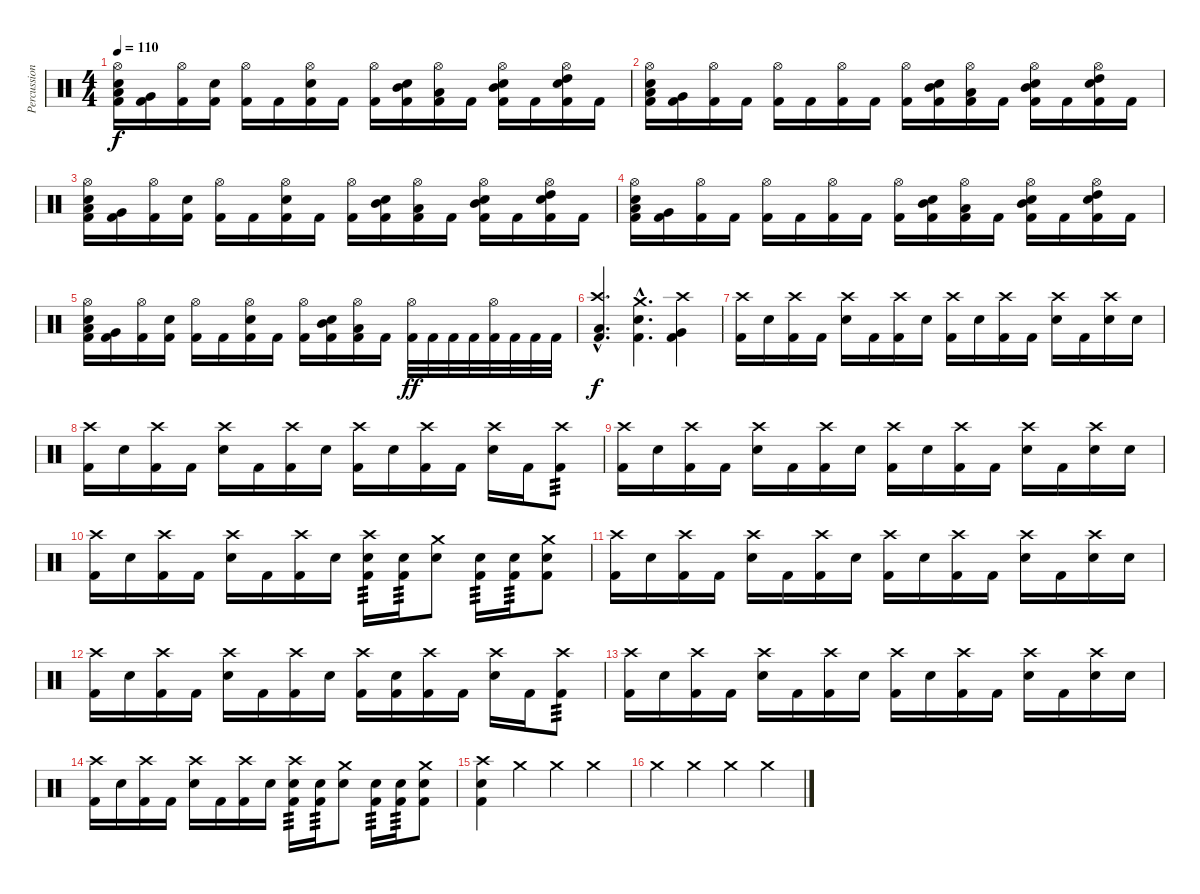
\track ("Percussion" "Percussion") {instrument percussion}
\staff {score}
\articulation defaults
\ts (4 4)
\tempo 110
\clef neutral
\ks c
("Hi-Hat (open)" "Electric Snare (hit)" "Low Tom (hit)" "Kick (hit) 2").16{dy f} ("Very Low Tom (hit)" "Kick (hit) 2").16 ("Hi-Hat (open)" "Kick (hit) 2").16 ("Electric Snare (hit)" "Kick (hit) 2").16 ("Hi-Hat (open)" "Kick (hit) 2").16 "Kick (hit) 2".16 ("Hi-Hat (open)" "Electric Snare (hit)" "Kick (hit) 2").16 "Kick (hit) 2".16 ("Hi-Hat (open)" "Kick (hit) 2").16 ("Electric Snare (hit)" "Mid Tom (hit)" "Kick (hit) 2").16 ("Hi-Hat (open)" "Low Tom (hit)" "Kick (hit) 2").16 "Kick (hit) 2".16 ("Hi-Hat (open)" "Electric Snare (hit)" "Mid Tom (hit)" "Kick (hit) 2").16 "Kick (hit) 2".16 ("Hi-Hat (open)" "Electric Snare (hit)" "High Tom (hit)" "Kick (hit) 2").16 "Kick (hit) 2".16 |
("Hi-Hat (open)" "Electric Snare (hit)" "Low Tom (hit)" "Kick (hit) 2").16 ("Very Low Tom (hit)" "Kick (hit) 2").16 ("Hi-Hat (open)" "Kick (hit) 2").16 "Kick (hit) 2".16 ("Hi-Hat (open)" "Kick (hit) 2").16 "Kick (hit) 2".16 ("Hi-Hat (open)" "Kick (hit) 2").16 "Kick (hit) 2".16 ("Hi-Hat (open)" "Kick (hit) 2").16 ("Electric Snare (hit)" "Mid Tom (hit)" "Kick (hit) 2").16 ("Hi-Hat (open)" "Low Tom (hit)" "Kick (hit) 2").16 "Kick (hit) 2".16 ("Hi-Hat (open)" "Electric Snare (hit)" "Mid Tom (hit)" "Kick (hit) 2").16 "Kick (hit) 2".16 ("Hi-Hat (open)" "Electric Snare (hit)" "High Tom (hit)" "Kick (hit) 2").16 "Kick (hit) 2".16 |
("Hi-Hat (open)" "Electric Snare (hit)" "Low Tom (hit)" "Kick (hit) 2").16 ("Very Low Tom (hit)" "Kick (hit) 2").16 ("Hi-Hat (open)" "Kick (hit) 2").16 ("Electric Snare (hit)" "Kick (hit) 2").16 ("Hi-Hat (open)" "Kick (hit) 2").16 "Kick (hit) 2".16 ("Hi-Hat (open)" "Electric Snare (hit)" "Kick (hit) 2").16 "Kick (hit) 2".16 ("Hi-Hat (open)" "Kick (hit) 2").16 ("Electric Snare (hit)" "Mid Tom (hit)" "Kick (hit) 2").16 ("Hi-Hat (open)" "Low Tom (hit)" "Kick (hit) 2").16 "Kick (hit) 2".16 ("Hi-Hat (open)" "Electric Snare (hit)" "Mid Tom (hit)" "Kick (hit) 2").16 "Kick (hit) 2".16 ("Hi-Hat (open)" "Electric Snare (hit)" "High Tom (hit)" "Kick (hit) 2").16 "Kick (hit) 2".16 |
("Hi-Hat (open)" "Electric Snare (hit)" "Low Tom (hit)" "Kick (hit) 2").16 ("Very Low Tom (hit)" "Kick (hit) 2").16 ("Hi-Hat (open)" "Kick (hit) 2").16 "Kick (hit) 2".16 ("Hi-Hat (open)" "Kick (hit) 2").16 "Kick (hit) 2".16 ("Hi-Hat (open)" "Kick (hit) 2").16 "Kick (hit) 2".16 ("Hi-Hat (open)" "Kick (hit) 2").16 ("Electric Snare (hit)" "Mid Tom (hit)" "Kick (hit) 2").16 ("Hi-Hat (open)" "Low Tom (hit)" "Kick (hit) 2").16 "Kick (hit) 2".16 ("Hi-Hat (open)" "Electric Snare (hit)" "Mid Tom (hit)" "Kick (hit) 2").16 "Kick (hit) 2".16 ("Hi-Hat (open)" "Electric Snare (hit)" "High Tom (hit)" "Kick (hit) 2").16 "Kick (hit) 2".16 |
("Hi-Hat (open)" "Electric Snare (hit)" "Low Tom (hit)" "Kick (hit) 2").16 ("Very Low Tom (hit)" "Kick (hit) 2").16 ("Hi-Hat (open)" "Kick (hit) 2").16 ("Electric Snare (hit)" "Kick (hit) 2").16 ("Hi-Hat (open)" "Kick (hit) 2").16 "Kick (hit) 2".16 ("Hi-Hat (open)" "Electric Snare (hit)" "Kick (hit) 2").16 "Kick (hit) 2".16 ("Hi-Hat (open)" "Kick (hit) 2").16 ("Electric Snare (hit)" "Mid Tom (hit)" "Kick (hit) 2").16 ("Hi-Hat (open)" "Low Tom (hit)" "Kick (hit) 2").16 "Kick (hit) 2".16 ("Hi-Hat (open)" "Kick (hit) 2").32{dy ff} "Kick (hit) 2".32 "Kick (hit) 2".32 "Kick (hit) 2".32 ("Hi-Hat (open)" "Kick (hit) 2").32 "Kick (hit) 2".32 "Kick (hit) 2".32 "Kick (hit) 2".32 |
("Crash high (hit)"{hac} "Low Floor Tom (hit)"{hac} "Kick (hit) 2"{hac}).4{d dy f} ("Crash medium (hit)"{hac} "Electric Snare (hit)"{hac} "Kick (hit) 2"{hac}).4{d} ("Crash high (hit)" "Very Low Tom (hit)" "Kick (hit) 2").4 |
("Crash high (hit)" "Kick (hit) 2").16 "Electric Snare (hit)".16 ("Crash high (hit)" "Kick (hit) 2").16 "Kick (hit) 2".16 ("Crash high (hit)" "Electric Snare (hit)").16 "Kick (hit) 2".16 ("Crash high (hit)" "Kick (hit) 2").16 "Electric Snare (hit)".16 ("Crash high (hit)" "Kick (hit) 2").16 "Electric Snare (hit)".16 ("Crash high (hit)" "Kick (hit) 2").16 "Kick (hit) 2".16 ("Crash high (hit)" "Electric Snare (hit)").16 "Kick (hit) 2".16 ("Crash high (hit)" "Electric Snare (hit)").16 "Electric Snare (hit)".16 |
("Crash high (hit)" "Kick (hit) 2").16 "Electric Snare (hit)".16 ("Crash high (hit)" "Kick (hit) 2").16 "Kick (hit) 2".16 ("Crash high (hit)" "Electric Snare (hit)").16 "Kick (hit) 2".16 ("Crash high (hit)" "Kick (hit) 2").16 "Electric Snare (hit)".16 ("Crash high (hit)" "Kick (hit) 2").16 "Electric Snare (hit)".16 ("Crash high (hit)" "Kick (hit) 2").16 "Kick (hit) 2".16 ("Crash high (hit)" "Electric Snare (hit)").16 "Kick (hit) 2".16 ("Crash high (hit)" "Kick (hit) 2").8{tp 3} |
("Crash high (hit)" "Kick (hit) 2").16 "Electric Snare (hit)".16 ("Crash high (hit)" "Kick (hit) 2").16 "Kick (hit) 2".16 ("Crash high (hit)" "Electric Snare (hit)").16 "Kick (hit) 2".16 ("Crash high (hit)" "Kick (hit) 2").16 "Electric Snare (hit)".16 ("Crash high (hit)" "Kick (hit) 2").16 "Electric Snare (hit)".16 ("Crash high (hit)" "Kick (hit) 2").16 "Kick (hit) 2".16 ("Crash high (hit)" "Electric Snare (hit)").16 "Kick (hit) 2".16 ("Crash high (hit)" "Electric Snare (hit)").16 "Electric Snare (hit)".16 |
("Crash high (hit)" "Kick (hit) 2").16 "Electric Snare (hit)".16 ("Crash high (hit)" "Kick (hit) 2").16 "Kick (hit) 2".16 ("Crash high (hit)" "Electric Snare (hit)").16 "Kick (hit) 2".16 ("Crash high (hit)" "Kick (hit) 2").16 "Electric Snare (hit)".16 ("Crash high (hit)" "Electric Snare (hit)" "Kick (hit) 2").16{tp 3} ("Electric Snare (hit)" "Kick (hit) 2").16{tp 3} ("Crash medium (hit)" "Electric Snare (hit)").8 ("Electric Snare (hit)" "Kick (hit) 2").16{tp 3} ("Electric Snare (hit)" "Kick (hit) 2").16{tp 3} ("Crash medium (hit)" "Electric Snare (hit)" "Kick (hit) 2").8 |
("Crash high (hit)" "Kick (hit) 2").16 "Electric Snare (hit)".16 ("Crash high (hit)" "Kick (hit) 2").16 "Kick (hit) 2".16 ("Crash high (hit)" "Electric Snare (hit)").16 "Kick (hit) 2".16 ("Crash high (hit)" "Kick (hit) 2").16 "Electric Snare (hit)".16 ("Crash high (hit)" "Kick (hit) 2").16 "Electric Snare (hit)".16 ("Crash high (hit)" "Kick (hit) 2").16 "Kick (hit) 2".16 ("Crash high (hit)" "Electric Snare (hit)").16 "Kick (hit) 2".16 ("Crash high (hit)" "Electric Snare (hit)").16 "Electric Snare (hit)".16 |
("Crash high (hit)" "Kick (hit) 2").16 "Electric Snare (hit)".16 ("Crash high (hit)" "Kick (hit) 2").16 "Kick (hit) 2".16 ("Crash high (hit)" "Electric Snare (hit)").16 "Kick (hit) 2".16 ("Crash high (hit)" "Kick (hit) 2").16 "Electric Snare (hit)".16 ("Crash high (hit)" "Kick (hit) 2").16 ("Electric Snare (hit)" "Kick (hit) 2").16 ("Crash high (hit)" "Kick (hit) 2").16 "Kick (hit) 2".16 ("Crash high (hit)" "Electric Snare (hit)").16 "Kick (hit) 2".16 ("Crash high (hit)" "Kick (hit) 2").8{tp 3} |
("Crash high (hit)" "Kick (hit) 2").16 "Electric Snare (hit)".16 ("Crash high (hit)" "Kick (hit) 2").16 "Kick (hit) 2".16 ("Crash high (hit)" "Electric Snare (hit)").16 "Kick (hit) 2".16 ("Crash high (hit)" "Kick (hit) 2").16 "Electric Snare (hit)".16 ("Crash high (hit)" "Kick (hit) 2").16 "Electric Snare (hit)".16 ("Crash high (hit)" "Kick (hit) 2").16 "Kick (hit) 2".16 ("Crash high (hit)" "Electric Snare (hit)").16 "Kick (hit) 2".16 ("Crash high (hit)" "Electric Snare (hit)").16 "Electric Snare (hit)".16 |
("Crash high (hit)" "Kick (hit) 2").16 "Electric Snare (hit)".16 ("Crash high (hit)" "Kick (hit) 2").16 "Kick (hit) 2".16 ("Crash high (hit)" "Electric Snare (hit)").16 "Kick (hit) 2".16 ("Crash high (hit)" "Kick (hit) 2").16 "Electric Snare (hit)".16 ("Crash high (hit)" "Electric Snare (hit)" "Kick (hit) 2").16{tp 3} ("Electric Snare (hit)" "Kick (hit) 2").16{tp 3} ("Crash medium (hit)" "Electric Snare (hit)").8 ("Electric Snare (hit)" "Kick (hit) 2").16{tp 3} ("Electric Snare (hit)" "Kick (hit) 2").16{tp 3} ("Crash medium (hit)" "Electric Snare (hit)" "Kick (hit) 2").8 |
("Crash high (hit)" "Electric Snare (hit)" "Kick (hit) 2").4 "Crash medium (hit)".4 "Crash medium (hit)".4 "Crash medium (hit)".4 |
"Crash medium (hit)".4 "Crash medium (hit)".4 "Crash medium (hit)".4 "Crash medium (hit)".4
